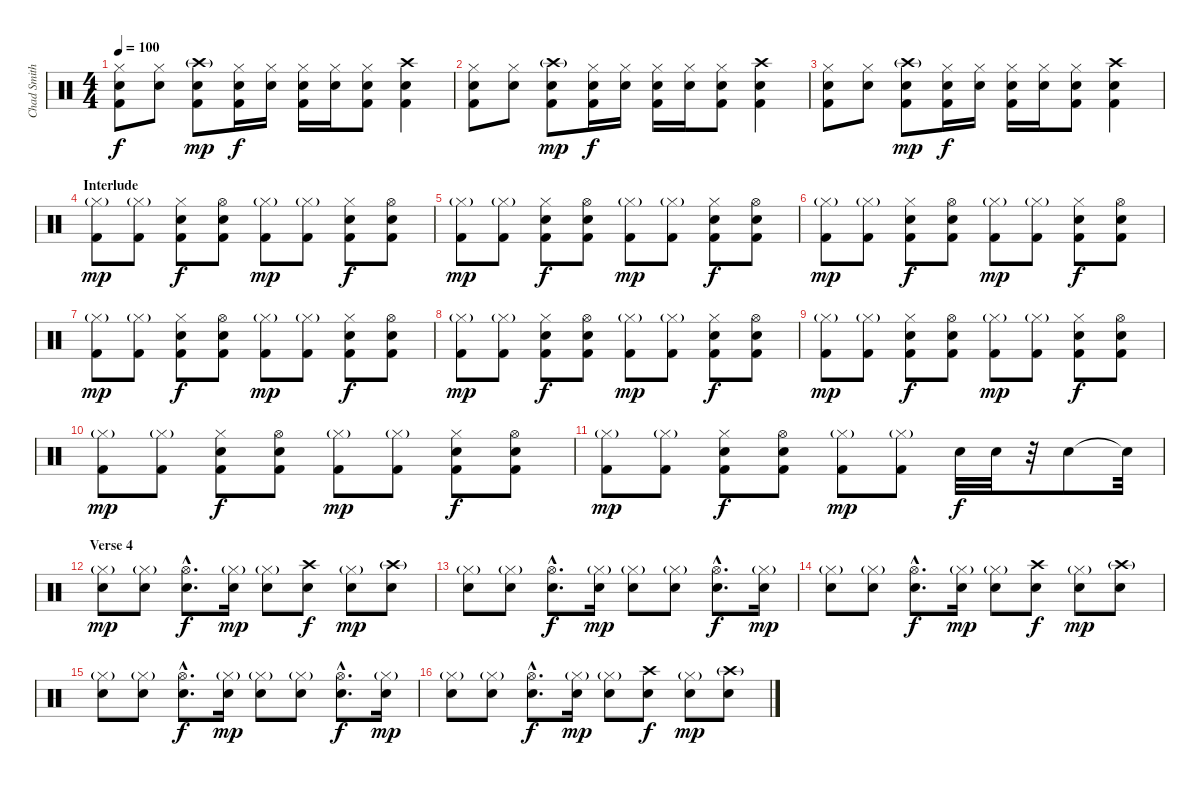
\track ("Chad Smith - Drums" "Chad Smith") {instrument percussion}
\staff {score}
\articulation defaults
\ts (4 4)
\tempo 100
\clef neutral
\ks c
("Hi-Hat (closed)" "Electric Snare (hit)" "Kick (hit) 2").8{dy f} ("Hi-Hat (closed)" "Electric Snare (hit)").8 ("Crash high (hit)"{g} "Electric Snare (hit)" "Kick (hit) 2").8{dy mp} ("Hi-Hat (closed)" "Electric Snare (hit)" "Kick (hit) 2").16{dy f} ("Hi-Hat (closed)" "Electric Snare (hit)").16 ("Hi-Hat (closed)" "Electric Snare (hit)" "Kick (hit) 2").16 ("Hi-Hat (closed)" "Electric Snare (hit)").16 ("Hi-Hat (closed)" "Electric Snare (hit)" "Kick (hit) 2").8 ("Crash high (hit)" "Electric Snare (hit)" "Kick (hit) 2").4 |
("Hi-Hat (closed)" "Electric Snare (hit)" "Kick (hit) 2").8 ("Hi-Hat (closed)" "Electric Snare (hit)").8 ("Crash high (hit)"{g} "Electric Snare (hit)" "Kick (hit) 2").8{dy mp} ("Hi-Hat (closed)" "Electric Snare (hit)" "Kick (hit) 2").16{dy f} ("Hi-Hat (closed)" "Electric Snare (hit)").16 ("Hi-Hat (closed)" "Electric Snare (hit)" "Kick (hit) 2").16 ("Hi-Hat (closed)" "Electric Snare (hit)").16 ("Hi-Hat (closed)" "Electric Snare (hit)" "Kick (hit) 2").8 ("Crash high (hit)" "Electric Snare (hit)" "Kick (hit) 2").4 |
("Hi-Hat (closed)" "Electric Snare (hit)" "Kick (hit) 2").8 ("Hi-Hat (closed)" "Electric Snare (hit)").8 ("Crash high (hit)"{g} "Electric Snare (hit)" "Kick (hit) 2").8{dy mp} ("Hi-Hat (closed)" "Electric Snare (hit)" "Kick (hit) 2").16{dy f} ("Hi-Hat (closed)" "Electric Snare (hit)").16 ("Hi-Hat (closed)" "Electric Snare (hit)" "Kick (hit) 2").16 ("Hi-Hat (closed)" "Electric Snare (hit)").16 ("Hi-Hat (closed)" "Electric Snare (hit)" "Kick (hit) 2").8 ("Crash high (hit)" "Electric Snare (hit)" "Kick (hit) 2").4 |
\section ("" "Interlude")
("Hi-Hat (closed)"{g} "Kick (hit) 2").8{dy mp} ("Hi-Hat (closed)"{g} "Kick (hit) 2").8 ("Hi-Hat (closed)" "Electric Snare (hit)" "Kick (hit) 2").8{dy f} ("Hi-Hat (open)" "Electric Snare (hit)" "Kick (hit) 2").8 ("Hi-Hat (closed)"{g} "Kick (hit) 2").8{dy mp} ("Hi-Hat (closed)"{g} "Kick (hit) 2").8 ("Hi-Hat (closed)" "Electric Snare (hit)" "Kick (hit) 2").8{dy f} ("Hi-Hat (open)" "Electric Snare (hit)" "Kick (hit) 2").8 |
("Hi-Hat (closed)"{g} "Kick (hit) 2").8{dy mp} ("Hi-Hat (closed)"{g} "Kick (hit) 2").8 ("Hi-Hat (closed)" "Electric Snare (hit)" "Kick (hit) 2").8{dy f} ("Hi-Hat (open)" "Electric Snare (hit)" "Kick (hit) 2").8 ("Hi-Hat (closed)"{g} "Kick (hit) 2").8{dy mp} ("Hi-Hat (closed)"{g} "Kick (hit) 2").8 ("Hi-Hat (closed)" "Electric Snare (hit)" "Kick (hit) 2").8{dy f} ("Hi-Hat (open)" "Electric Snare (hit)" "Kick (hit) 2").8 |
("Hi-Hat (closed)"{g} "Kick (hit) 2").8{dy mp} ("Hi-Hat (closed)"{g} "Kick (hit) 2").8 ("Hi-Hat (closed)" "Electric Snare (hit)" "Kick (hit) 2").8{dy f} ("Hi-Hat (open)" "Electric Snare (hit)" "Kick (hit) 2").8 ("Hi-Hat (closed)"{g} "Kick (hit) 2").8{dy mp} ("Hi-Hat (closed)"{g} "Kick (hit) 2").8 ("Hi-Hat (closed)" "Electric Snare (hit)" "Kick (hit) 2").8{dy f} ("Hi-Hat (open)" "Electric Snare (hit)" "Kick (hit) 2").8 |
("Hi-Hat (closed)"{g} "Kick (hit) 2").8{dy mp} ("Hi-Hat (closed)"{g} "Kick (hit) 2").8 ("Hi-Hat (closed)" "Electric Snare (hit)" "Kick (hit) 2").8{dy f} ("Hi-Hat (open)" "Electric Snare (hit)" "Kick (hit) 2").8 ("Hi-Hat (closed)"{g} "Kick (hit) 2").8{dy mp} ("Hi-Hat (closed)"{g} "Kick (hit) 2").8 ("Hi-Hat (closed)" "Electric Snare (hit)" "Kick (hit) 2").8{dy f} ("Hi-Hat (open)" "Electric Snare (hit)" "Kick (hit) 2").8 |
("Hi-Hat (closed)"{g} "Kick (hit) 2").8{dy mp} ("Hi-Hat (closed)"{g} "Kick (hit) 2").8 ("Hi-Hat (closed)" "Electric Snare (hit)" "Kick (hit) 2").8{dy f} ("Hi-Hat (open)" "Electric Snare (hit)" "Kick (hit) 2").8 ("Hi-Hat (closed)"{g} "Kick (hit) 2").8{dy mp} ("Hi-Hat (closed)"{g} "Kick (hit) 2").8 ("Hi-Hat (closed)" "Electric Snare (hit)" "Kick (hit) 2").8{dy f} ("Hi-Hat (open)" "Electric Snare (hit)" "Kick (hit) 2").8 |
("Hi-Hat (closed)"{g} "Kick (hit) 2").8{dy mp} ("Hi-Hat (closed)"{g} "Kick (hit) 2").8 ("Hi-Hat (closed)" "Electric Snare (hit)" "Kick (hit) 2").8{dy f} ("Hi-Hat (open)" "Electric Snare (hit)" "Kick (hit) 2").8 ("Hi-Hat (closed)"{g} "Kick (hit) 2").8{dy mp} ("Hi-Hat (closed)"{g} "Kick (hit) 2").8 ("Hi-Hat (closed)" "Electric Snare (hit)" "Kick (hit) 2").8{dy f} ("Hi-Hat (open)" "Electric Snare (hit)" "Kick (hit) 2").8 |
("Hi-Hat (closed)"{g} "Kick (hit) 2").8{dy mp} ("Hi-Hat (closed)"{g} "Kick (hit) 2").8 ("Hi-Hat (closed)" "Electric Snare (hit)" "Kick (hit) 2").8{dy f} ("Hi-Hat (open)" "Electric Snare (hit)" "Kick (hit) 2").8 ("Hi-Hat (closed)"{g} "Kick (hit) 2").8{dy mp} ("Hi-Hat (closed)"{g} "Kick (hit) 2").8 ("Hi-Hat (closed)" "Electric Snare (hit)" "Kick (hit) 2").8{dy f} ("Hi-Hat (open)" "Electric Snare (hit)" "Kick (hit) 2").8 |
("Hi-Hat (closed)"{g} "Kick (hit) 2").8{dy mp} ("Hi-Hat (closed)"{g} "Kick (hit) 2").8 ("Hi-Hat (closed)" "Electric Snare (hit)" "Kick (hit) 2").8{dy f} ("Hi-Hat (open)" "Electric Snare (hit)" "Kick (hit) 2").8 ("Hi-Hat (closed)"{g} "Kick (hit) 2").8{dy mp} ("Hi-Hat (closed)"{g} "Kick (hit) 2").8 "Snare (hit) 2".32{dy f} "Electric Snare (hit)".32 r.32 "Snare (hit) 2".8 "Snare (hit)"{t}.32 |
\section ("" "Verse 4")
("Hi-Hat (closed)"{g} "Snare (hit) 2").8{dy mp} ("Hi-Hat (closed)"{g} "Snare (hit) 2").8 ("Hi-Hat (open)"{hac} "Snare (hit) 2"{hac}).8{d dy f} ("Hi-Hat (closed)"{g} "Snare (hit) 2").16{dy mp} ("Hi-Hat (closed)"{g} "Snare (hit) 2").8 ("Crash high (hit)" "Snare (hit) 2").8{dy f} ("Hi-Hat (closed)"{g} "Snare (hit) 2").8{dy mp} ("Crash high (hit)"{g} "Snare (hit) 2").8 |
("Hi-Hat (closed)"{g} "Snare (hit) 2").8 ("Hi-Hat (closed)"{g} "Snare (hit) 2").8 ("Hi-Hat (open)"{hac} "Snare (hit) 2"{hac}).8{d dy f} ("Hi-Hat (closed)"{g} "Snare (hit) 2").16{dy mp} ("Hi-Hat (closed)"{g} "Snare (hit) 2").8 ("Hi-Hat (closed)"{g} "Snare (hit) 2").8 ("Hi-Hat (open)"{hac} "Snare (hit) 2"{hac}).8{d dy f} ("Hi-Hat (closed)"{g} "Snare (hit) 2").16{dy mp} |
("Hi-Hat (closed)"{g} "Snare (hit) 2").8 ("Hi-Hat (closed)"{g} "Snare (hit) 2").8 ("Hi-Hat (open)"{hac} "Snare (hit) 2"{hac}).8{d dy f} ("Hi-Hat (closed)"{g} "Snare (hit) 2").16{dy mp} ("Hi-Hat (closed)"{g} "Snare (hit) 2").8 ("Crash high (hit)" "Snare (hit) 2").8{dy f} ("Hi-Hat (closed)"{g} "Snare (hit) 2").8{dy mp} ("Crash high (hit)"{g} "Snare (hit) 2").8 |
("Hi-Hat (closed)"{g} "Snare (hit) 2").8 ("Hi-Hat (closed)"{g} "Snare (hit) 2").8 ("Hi-Hat (open)"{hac} "Snare (hit) 2"{hac}).8{d dy f} ("Hi-Hat (closed)"{g} "Snare (hit) 2").16{dy mp} ("Hi-Hat (closed)"{g} "Snare (hit) 2").8 ("Hi-Hat (closed)"{g} "Snare (hit) 2").8 ("Hi-Hat (open)"{hac} "Snare (hit) 2"{hac}).8{d dy f} ("Hi-Hat (closed)"{g} "Snare (hit) 2").16{dy mp} |
("Hi-Hat (closed)"{g} "Snare (hit) 2").8 ("Hi-Hat (closed)"{g} "Snare (hit) 2").8 ("Hi-Hat (open)"{hac} "Snare (hit) 2"{hac}).8{d dy f} ("Hi-Hat (closed)"{g} "Snare (hit) 2").16{dy mp} ("Hi-Hat (closed)"{g} "Snare (hit) 2").8 ("Crash high (hit)" "Snare (hit) 2").8{dy f} ("Hi-Hat (closed)"{g} "Snare (hit) 2").8{dy mp} ("Crash high (hit)"{g} "Snare (hit) 2").8
